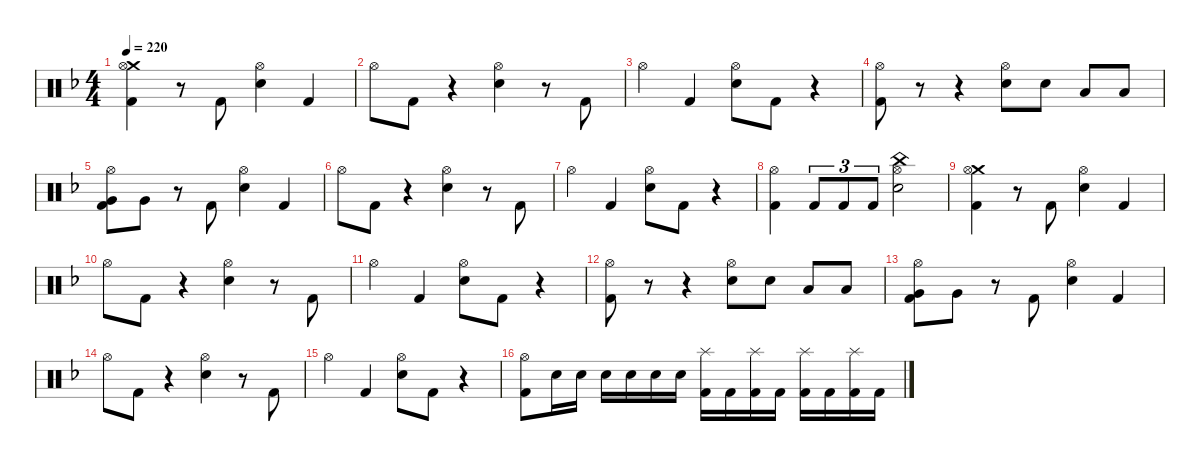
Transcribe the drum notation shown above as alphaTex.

\hideDynamics
\bracketExtendMode nobrackets
\singleTrackTrackNamePolicy hidden
\multiTrackTrackNamePolicy hidden
\firstSystemTrackNameMode fullname
\firstSystemTrackNameOrientation horizontal
\otherSystemsTrackNameOrientation horizontal
\track ("Drumkit" "Drums") {instrument percussion}
\staff {score}
\articulation defaults
\ts (4 4)
\tempo 220
\clef neutral
\ks dminor
("Crash medium (hit)"{acc forcenatural} "Hi-Hat (open)"{acc forcenatural} "Kick (hit) 2"{acc forcenatural}).4{dy f beam Down} r.8{beam Down} "Kick (hit) 2"{acc forcenatural}.8{beam Up} ("Hi-Hat (open)"{acc forcenatural} "Snare (hit) 2"{acc forcenatural}).4{beam Down} "Kick (hit) 2"{acc forcenatural}.4{beam Up} |
"Hi-Hat (open)"{acc forcenatural}.8{beam Down} "Kick (hit) 2"{acc forcenatural}.8{beam Down} r.4{beam Down} ("Hi-Hat (open)"{acc forcenatural} "Snare (hit) 2"{acc forcenatural}).4{beam Down} r.8{beam Down} "Kick (hit) 2"{acc forcenatural}.8{beam Up} |
"Hi-Hat (open)"{acc forcenatural}.4{beam Down} "Kick (hit) 2"{acc forcenatural}.4{beam Up} ("Hi-Hat (open)"{acc forcenatural} "Snare (hit) 2"{acc forcenatural}).8{beam Down} "Kick (hit) 2"{acc forcenatural}.8{beam Down} r.4{beam Down} |
("Hi-Hat (open)"{acc forcenatural} "Kick (hit) 2"{acc forcenatural}).8{beam Down} r.8{beam Down} r.4{beam Down} ("Hi-Hat (open)"{acc forcenatural} "Snare (hit) 2"{acc forcenatural}).8{beam Down} "Snare (hit) 2"{acc forcenatural}.8{dy mf beam Down} "Low Tom (hit)"{acc forcenatural}.8{beam Up} "Low Tom (hit)"{acc forcenatural}.8{beam Up} |
("Hi-Hat (open)"{acc forcenatural} "Very Low Tom (hit)"{acc forcenatural} "Kick (hit) 2"{acc forcenatural}).8{dy f beam Down} "Very Low Tom (hit)"{acc forcenatural}.8{dy mf beam Down} r.8{beam Down} "Kick (hit) 2"{acc forcenatural}.8{dy f beam Up} ("Hi-Hat (open)"{acc forcenatural} "Snare (hit) 2"{acc forcenatural}).4{beam Down} "Kick (hit) 2"{acc forcenatural}.4{beam Up} |
"Hi-Hat (open)"{acc forcenatural}.8{beam Down} "Kick (hit) 2"{acc forcenatural}.8{beam Down} r.4{beam Down} ("Hi-Hat (open)"{acc forcenatural} "Snare (hit) 2"{acc forcenatural}).4{beam Down} r.8{beam Down} "Kick (hit) 2"{acc forcenatural}.8{beam Up} |
"Hi-Hat (open)"{acc forcenatural}.4{beam Down} "Kick (hit) 2"{acc forcenatural}.4{beam Up} ("Hi-Hat (open)"{acc forcenatural} "Snare (hit) 2"{acc forcenatural}).8{beam Down} "Kick (hit) 2"{acc forcenatural}.8{beam Down} r.4{beam Down} |
("Hi-Hat (open)"{acc forcenatural} "Kick (hit) 2"{acc forcenatural}).4{beam Down} "Kick (hit) 2"{acc forcenatural}.8{tu (3 2) beam Up} "Kick (hit) 2"{acc forcenatural}.8{tu (3 2) beam Up} "Kick (hit) 2"{acc forcenatural}.8{tu (3 2) beam Up} ("China (hit)"{acc forcenatural} "Hi-Hat (open)"{acc forcenatural} "Snare (hit) 2"{acc forcenatural}).2{beam Down} |
("Crash medium (hit)"{acc forcenatural} "Hi-Hat (open)"{acc forcenatural} "Kick (hit) 2"{acc forcenatural}).4{beam Down} r.8{beam Down} "Kick (hit) 2"{acc forcenatural}.8{beam Up} ("Hi-Hat (open)"{acc forcenatural} "Snare (hit) 2"{acc forcenatural}).4{beam Down} "Kick (hit) 2"{acc forcenatural}.4{beam Up} |
"Hi-Hat (open)"{acc forcenatural}.8{beam Down} "Kick (hit) 2"{acc forcenatural}.8{beam Down} r.4{beam Down} ("Hi-Hat (open)"{acc forcenatural} "Snare (hit) 2"{acc forcenatural}).4{beam Down} r.8{beam Down} "Kick (hit) 2"{acc forcenatural}.8{beam Up} |
"Hi-Hat (open)"{acc forcenatural}.4{beam Down} "Kick (hit) 2"{acc forcenatural}.4{beam Up} ("Hi-Hat (open)"{acc forcenatural} "Snare (hit) 2"{acc forcenatural}).8{beam Down} "Kick (hit) 2"{acc forcenatural}.8{beam Down} r.4{beam Down} |
("Hi-Hat (open)"{acc forcenatural} "Kick (hit) 2"{acc forcenatural}).8{beam Down} r.8{beam Down} r.4{beam Down} ("Hi-Hat (open)"{acc forcenatural} "Snare (hit) 2"{acc forcenatural}).8{beam Down} "Snare (hit) 2"{acc forcenatural}.8{dy mf beam Down} "Low Tom (hit)"{acc forcenatural}.8{beam Up} "Low Tom (hit)"{acc forcenatural}.8{beam Up} |
("Hi-Hat (open)"{acc forcenatural} "Very Low Tom (hit)"{acc forcenatural} "Kick (hit) 2"{acc forcenatural}).8{dy f beam Down} "Very Low Tom (hit)"{acc forcenatural}.8{dy mf beam Down} r.8{beam Down} "Kick (hit) 2"{acc forcenatural}.8{dy f beam Up} ("Hi-Hat (open)"{acc forcenatural} "Snare (hit) 2"{acc forcenatural}).4{beam Down} "Kick (hit) 2"{acc forcenatural}.4{beam Up} |
"Hi-Hat (open)"{acc forcenatural}.8{beam Down} "Kick (hit) 2"{acc forcenatural}.8{beam Down} r.4{beam Down} ("Hi-Hat (open)"{acc forcenatural} "Snare (hit) 2"{acc forcenatural}).4{beam Down} r.8{beam Down} "Kick (hit) 2"{acc forcenatural}.8{beam Up} |
"Hi-Hat (open)"{acc forcenatural}.4{beam Down} "Kick (hit) 2"{acc forcenatural}.4{beam Up} ("Hi-Hat (open)"{acc forcenatural} "Snare (hit) 2"{acc forcenatural}).8{beam Down} "Kick (hit) 2"{acc forcenatural}.8{beam Down} r.4{beam Down} |
("Hi-Hat (open)"{acc forcenatural} "Kick (hit) 2"{acc forcenatural}).8{beam Down} "Snare (hit) 2"{acc forcenatural}.16{dy mf beam Down} "Snare (hit) 2"{acc forcenatural}.16{beam Down} "Snare (hit) 2"{acc forcenatural}.16{beam Down} "Snare (hit) 2"{acc forcenatural}.16{beam Down} "Snare (hit) 2"{acc forcenatural}.16{beam Down} "Snare (hit) 2"{acc forcenatural}.16{beam Down} ("Splash (hit)"{acc forcenatural} "Kick (hit) 2"{acc forcenatural}).16{beam Down} "Kick (hit) 2"{acc forcenatural}.16{dy f beam Down} ("Splash (hit)"{acc forcenatural} "Kick (hit) 2"{acc forcenatural}).16{dy mp beam Down} "Kick (hit) 2"{acc forcenatural}.16{dy f beam Down} ("Splash (hit)"{acc forcenatural} "Kick (hit) 2"{acc forcenatural}).16{dy mf beam Down} "Kick (hit) 2"{acc forcenatural}.16{dy f beam Down} ("Splash (hit)"{acc forcenatural} "Kick (hit) 2"{acc forcenatural}).16{dy mp beam Down} "Kick (hit) 2"{acc forcenatural}.16{dy f beam Down}
